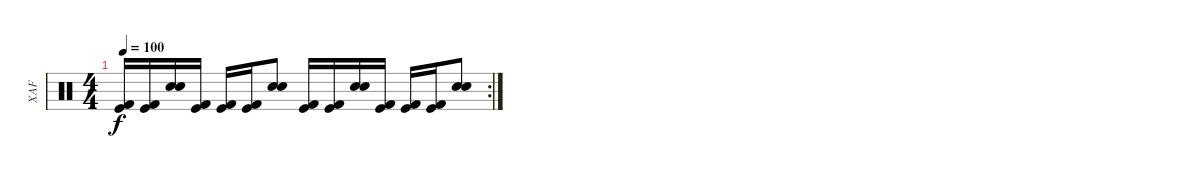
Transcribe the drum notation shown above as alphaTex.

\track ("XAF" "XAF") {instrument percussion}
\staff {score}
\articulation defaults
\rc 2
\ts (4 4)
\tempo 100
\clef neutral
\ks c
("Kick (hit) 2" "Kick (hit)").16{dy f} ("Kick (hit) 2" "Kick (hit)").16 ("Electric Snare (hit)" "Snare (hit) 2").16 ("Kick (hit) 2" "Kick (hit)").16 ("Kick (hit) 2" "Kick (hit)").16 ("Kick (hit) 2" "Kick (hit)").16 ("Electric Snare (hit)" "Snare (hit) 2").8 ("Kick (hit) 2" "Kick (hit)").16 ("Kick (hit) 2" "Kick (hit)").16 ("Electric Snare (hit)" "Snare (hit) 2").16 ("Kick (hit) 2" "Kick (hit)").16 ("Kick (hit) 2" "Kick (hit)").16 ("Kick (hit) 2" "Kick (hit)").16 ("Electric Snare (hit)" "Snare (hit) 2").8
